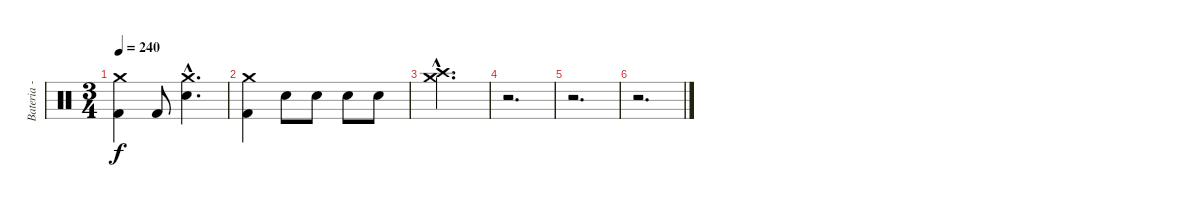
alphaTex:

\track ("Bateria - Larzon" "Bateria - ") {instrument percussion}
\staff {score}
\articulation defaults
\ts (3 4)
\tempo 240
\clef neutral
\ks c
("Kick (hit) 2" "Crash medium (hit)").4{dy f} "Kick (hit) 2".8 ("Snare (hit) 2"{hac} "Crash medium (hit)"{hac}).4{d} |
("Kick (hit) 2" "Crash medium (hit)").4 "Snare (hit) 2".8 "Snare (hit) 2".8 "Snare (hit) 2".8 "Snare (hit) 2".8 |
("Crash medium (hit)"{hac} "Crash high (hit)"{hac}).2{d} |
r.2{d} |
r.2{d} |
r.2{d}
